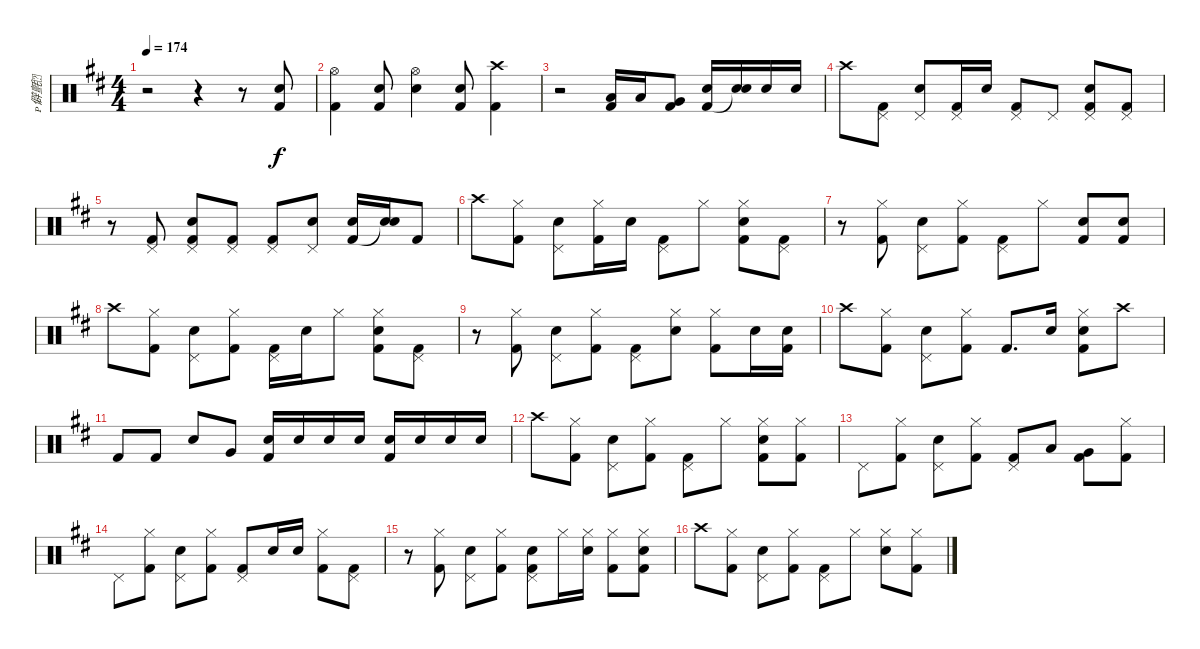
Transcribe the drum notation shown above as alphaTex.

\track ("僻氈" "僻氈") {instrument percussion}
\staff {score}
\articulation defaults
\ts (4 4)
\tempo 174
\clef neutral
\ks d
r.2{dy f} r.4 r.8 ("Electric Snare (hit)" "Kick (hit) 2").8 |
("Hi-Hat (open)" "Kick (hit) 2").4 ("Electric Snare (hit)" "Kick (hit) 2").8 ("Hi-Hat (open)" "Electric Snare (hit)").4 ("Electric Snare (hit)" "Kick (hit) 2").8 ("Crash high (hit)" "Kick (hit) 2").4 |
r.2 ("Low Tom (hit)" "Kick (hit) 2").16 "Low Tom (hit)".16 ("Very Low Tom (hit)" "Kick (hit) 2").8 ("Electric Snare (hit)" "Kick (hit) 2").16 ("Electric Snare (hit)" "Snare (hit)"{t}).16 "Electric Snare (hit)".16 "Electric Snare (hit)".16 |
"Crash high (hit)".8 ("Pedal Hi-Hat (hit)" "Kick (hit) 2").8 ("Pedal Hi-Hat (hit)" "Electric Snare (hit)").8 ("Pedal Hi-Hat (hit)" "Kick (hit) 2").16 "Electric Snare (hit)".16 ("Pedal Hi-Hat (hit)" "Kick (hit) 2").8 "Pedal Hi-Hat (hit)".8 ("Pedal Hi-Hat (hit)" "Electric Snare (hit)" "Kick (hit) 2").8 ("Pedal Hi-Hat (hit)" "Kick (hit) 2").8 |
r.8 ("Pedal Hi-Hat (hit)" "Kick (hit) 2").8 ("Pedal Hi-Hat (hit)" "Electric Snare (hit)" "Kick (hit) 2").8 ("Pedal Hi-Hat (hit)" "Kick (hit) 2").8 ("Pedal Hi-Hat (hit)" "Kick (hit) 2").8 ("Pedal Hi-Hat (hit)" "Electric Snare (hit)").8 ("Electric Snare (hit)" "Kick (hit) 2").16 ("Electric Snare (hit)" "Snare (hit)"{t}).16 "Kick (hit) 2".8 |
"Crash high (hit)".8 ("Hi-Hat (closed)" "Kick (hit) 2").8 ("Pedal Hi-Hat (hit)" "Electric Snare (hit)").8 ("Hi-Hat (closed)" "Kick (hit) 2").16 "Electric Snare (hit)".16 ("Pedal Hi-Hat (hit)" "Kick (hit) 2").8 "Hi-Hat (closed)".8 ("Hi-Hat (closed)" "Electric Snare (hit)" "Kick (hit) 2").8 ("Pedal Hi-Hat (hit)" "Kick (hit) 2").8 |
r.8 ("Hi-Hat (closed)" "Kick (hit) 2").8 ("Pedal Hi-Hat (hit)" "Electric Snare (hit)").8 ("Hi-Hat (closed)" "Kick (hit) 2").8 ("Pedal Hi-Hat (hit)" "Kick (hit) 2").8 "Hi-Hat (closed)".8 ("Electric Snare (hit)" "Kick (hit) 2").8 ("Electric Snare (hit)" "Kick (hit) 2").8 |
"Crash high (hit)".8 ("Hi-Hat (closed)" "Kick (hit) 2").8 ("Pedal Hi-Hat (hit)" "Electric Snare (hit)").8 ("Hi-Hat (closed)" "Kick (hit) 2").8 ("Pedal Hi-Hat (hit)" "Kick (hit) 2").16 "Electric Snare (hit)".16 "Hi-Hat (closed)".8 ("Hi-Hat (closed)" "Electric Snare (hit)" "Kick (hit) 2").8 ("Pedal Hi-Hat (hit)" "Kick (hit) 2").8 |
r.8 ("Hi-Hat (closed)" "Kick (hit) 2").8 ("Pedal Hi-Hat (hit)" "Electric Snare (hit)").8 ("Hi-Hat (closed)" "Kick (hit) 2").8 ("Pedal Hi-Hat (hit)" "Kick (hit) 2").8 ("Hi-Hat (closed)" "Electric Snare (hit)").8 ("Hi-Hat (closed)" "Kick (hit) 2").8 "Electric Snare (hit)".16 ("Electric Snare (hit)" "Kick (hit) 2").16 |
"Crash high (hit)".8 ("Hi-Hat (closed)" "Kick (hit) 2").8 ("Pedal Hi-Hat (hit)" "Electric Snare (hit)").8 ("Hi-Hat (closed)" "Kick (hit) 2").8 "Kick (hit) 2".8{d} "Electric Snare (hit)".16 ("Hi-Hat (closed)" "Electric Snare (hit)" "Kick (hit) 2").8 "Crash high (hit)".8 |
"Kick (hit) 2".8 "Kick (hit) 2".8 "Electric Snare (hit)".8 "Very Low Tom (hit)".8 ("Electric Snare (hit)" "Kick (hit) 2").16 "Electric Snare (hit)".16 "Electric Snare (hit)".16 "Electric Snare (hit)".16 ("Electric Snare (hit)" "Kick (hit) 2").16 "Electric Snare (hit)".16 "Electric Snare (hit)".16 "Electric Snare (hit)".16 |
"Crash high (hit)".8 ("Hi-Hat (closed)" "Kick (hit) 2").8 ("Pedal Hi-Hat (hit)" "Electric Snare (hit)").8 ("Hi-Hat (closed)" "Kick (hit) 2").8 ("Pedal Hi-Hat (hit)" "Kick (hit) 2").8 "Hi-Hat (closed)".8 ("Hi-Hat (closed)" "Electric Snare (hit)" "Kick (hit) 2").8 ("Hi-Hat (closed)" "Kick (hit) 2").8 |
"Pedal Hi-Hat (hit)".8 ("Hi-Hat (closed)" "Kick (hit) 2").8 ("Pedal Hi-Hat (hit)" "Electric Snare (hit)").8 ("Hi-Hat (closed)" "Kick (hit) 2").8 ("Pedal Hi-Hat (hit)" "Kick (hit) 2").8 "Low Tom (hit)".8 ("Very Low Tom (hit)" "Kick (hit) 2").8 ("Hi-Hat (closed)" "Kick (hit) 2").8 |
"Pedal Hi-Hat (hit)".8 ("Hi-Hat (closed)" "Kick (hit) 2").8 ("Pedal Hi-Hat (hit)" "Electric Snare (hit)").8 ("Hi-Hat (closed)" "Kick (hit) 2").8 ("Pedal Hi-Hat (hit)" "Kick (hit) 2").8 "Electric Snare (hit)".16 "Electric Snare (hit)".16 ("Hi-Hat (closed)" "Kick (hit) 2").8 ("Pedal Hi-Hat (hit)" "Kick (hit) 2").8 |
r.8 ("Hi-Hat (closed)" "Kick (hit) 2").8 ("Pedal Hi-Hat (hit)" "Electric Snare (hit)").8 ("Hi-Hat (closed)" "Kick (hit) 2").8 ("Pedal Hi-Hat (hit)" "Electric Snare (hit)" "Kick (hit) 2").8 "Hi-Hat (closed)".16 ("Hi-Hat (closed)" "Electric Snare (hit)").16 ("Hi-Hat (closed)" "Kick (hit) 2").8 ("Hi-Hat (closed)" "Electric Snare (hit)" "Kick (hit) 2").8 |
"Crash high (hit)".8 ("Hi-Hat (closed)" "Kick (hit) 2").8 ("Pedal Hi-Hat (hit)" "Electric Snare (hit)").8 ("Hi-Hat (closed)" "Kick (hit) 2").8 ("Pedal Hi-Hat (hit)" "Kick (hit) 2").8 "Hi-Hat (closed)".8 ("Hi-Hat (closed)" "Electric Snare (hit)").8 ("Hi-Hat (closed)" "Kick (hit) 2").8
